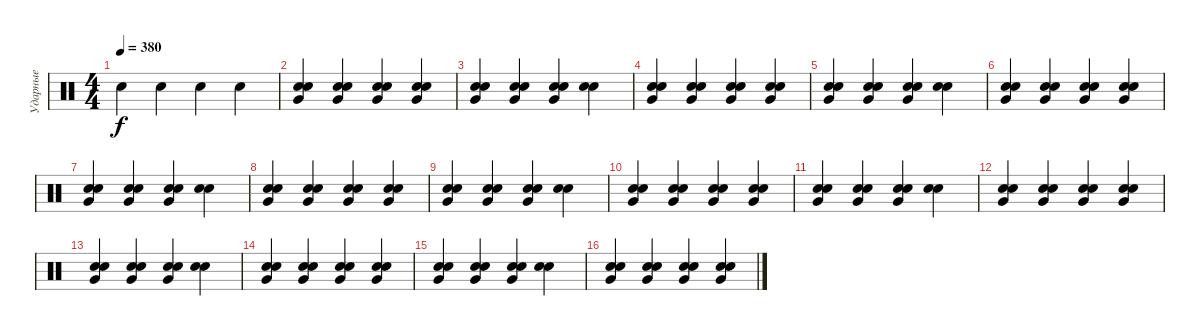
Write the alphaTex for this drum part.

\track ("Ударные" "Ударные") {instrument percussion}
\staff {score}
\articulation defaults
\ts (4 4)
\tempo 380
\clef neutral
\ks c "Electric Snare (hit)".4{dy f} "Electric Snare (hit)".4 "Electric Snare (hit)".4 "Electric Snare (hit)".4
|
("Electric Snare (hit)" "Electric Snare (hit)" "Very Low Tom (hit)").4 ("Electric Snare (hit)" "Electric Snare (hit)" "Very Low Tom (hit)").4 ("Electric Snare (hit)" "Electric Snare (hit)" "Very Low Tom (hit)").4 ("Electric Snare (hit)" "Electric Snare (hit)" "Very Low Tom (hit)").4 |
("Electric Snare (hit)" "Electric Snare (hit)" "Very Low Tom (hit)").4 ("Electric Snare (hit)" "Electric Snare (hit)" "Very Low Tom (hit)").4 ("Electric Snare (hit)" "Electric Snare (hit)" "Very Low Tom (hit)").4 ("Electric Snare (hit)" "Electric Snare (hit)").4 |
("Electric Snare (hit)" "Electric Snare (hit)" "Very Low Tom (hit)").4 ("Electric Snare (hit)" "Electric Snare (hit)" "Very Low Tom (hit)").4 ("Electric Snare (hit)" "Electric Snare (hit)" "Very Low Tom (hit)").4 ("Electric Snare (hit)" "Electric Snare (hit)" "Very Low Tom (hit)").4 |
("Electric Snare (hit)" "Electric Snare (hit)" "Very Low Tom (hit)").4 ("Electric Snare (hit)" "Electric Snare (hit)" "Very Low Tom (hit)").4 ("Electric Snare (hit)" "Electric Snare (hit)" "Very Low Tom (hit)").4 ("Electric Snare (hit)" "Electric Snare (hit)").4 |
("Electric Snare (hit)" "Electric Snare (hit)" "Very Low Tom (hit)").4 ("Electric Snare (hit)" "Electric Snare (hit)" "Very Low Tom (hit)").4 ("Electric Snare (hit)" "Electric Snare (hit)" "Very Low Tom (hit)").4 ("Electric Snare (hit)" "Electric Snare (hit)" "Very Low Tom (hit)").4 |
("Electric Snare (hit)" "Electric Snare (hit)" "Very Low Tom (hit)").4 ("Electric Snare (hit)" "Electric Snare (hit)" "Very Low Tom (hit)").4 ("Electric Snare (hit)" "Electric Snare (hit)" "Very Low Tom (hit)").4 ("Electric Snare (hit)" "Electric Snare (hit)").4 |
("Electric Snare (hit)" "Electric Snare (hit)" "Very Low Tom (hit)").4 ("Electric Snare (hit)" "Electric Snare (hit)" "Very Low Tom (hit)").4 ("Electric Snare (hit)" "Electric Snare (hit)" "Very Low Tom (hit)").4 ("Electric Snare (hit)" "Electric Snare (hit)" "Very Low Tom (hit)").4 |
("Electric Snare (hit)" "Electric Snare (hit)" "Very Low Tom (hit)").4 ("Electric Snare (hit)" "Electric Snare (hit)" "Very Low Tom (hit)").4 ("Electric Snare (hit)" "Electric Snare (hit)" "Very Low Tom (hit)").4 ("Electric Snare (hit)" "Electric Snare (hit)").4 |
("Electric Snare (hit)" "Electric Snare (hit)" "Very Low Tom (hit)").4 ("Electric Snare (hit)" "Electric Snare (hit)" "Very Low Tom (hit)").4 ("Electric Snare (hit)" "Electric Snare (hit)" "Very Low Tom (hit)").4 ("Electric Snare (hit)" "Electric Snare (hit)" "Very Low Tom (hit)").4 |
("Electric Snare (hit)" "Electric Snare (hit)" "Very Low Tom (hit)").4 ("Electric Snare (hit)" "Electric Snare (hit)" "Very Low Tom (hit)").4 ("Electric Snare (hit)" "Electric Snare (hit)" "Very Low Tom (hit)").4 ("Electric Snare (hit)" "Electric Snare (hit)").4 |
("Electric Snare (hit)" "Electric Snare (hit)" "Very Low Tom (hit)").4 ("Electric Snare (hit)" "Electric Snare (hit)" "Very Low Tom (hit)").4 ("Electric Snare (hit)" "Electric Snare (hit)" "Very Low Tom (hit)").4 ("Electric Snare (hit)" "Electric Snare (hit)" "Very Low Tom (hit)").4 |
("Electric Snare (hit)" "Electric Snare (hit)" "Very Low Tom (hit)").4 ("Electric Snare (hit)" "Electric Snare (hit)" "Very Low Tom (hit)").4 ("Electric Snare (hit)" "Electric Snare (hit)" "Very Low Tom (hit)").4 ("Electric Snare (hit)" "Electric Snare (hit)").4 |
("Electric Snare (hit)" "Electric Snare (hit)" "Very Low Tom (hit)").4 ("Electric Snare (hit)" "Electric Snare (hit)" "Very Low Tom (hit)").4 ("Electric Snare (hit)" "Electric Snare (hit)" "Very Low Tom (hit)").4 ("Electric Snare (hit)" "Electric Snare (hit)" "Very Low Tom (hit)").4 |
("Electric Snare (hit)" "Electric Snare (hit)" "Very Low Tom (hit)").4 ("Electric Snare (hit)" "Electric Snare (hit)" "Very Low Tom (hit)").4 ("Electric Snare (hit)" "Electric Snare (hit)" "Very Low Tom (hit)").4 ("Electric Snare (hit)" "Electric Snare (hit)").4 |
("Electric Snare (hit)" "Electric Snare (hit)" "Very Low Tom (hit)").4 ("Electric Snare (hit)" "Electric Snare (hit)" "Very Low Tom (hit)").4 ("Electric Snare (hit)" "Electric Snare (hit)" "Very Low Tom (hit)").4 ("Electric Snare (hit)" "Electric Snare (hit)" "Very Low Tom (hit)").4
